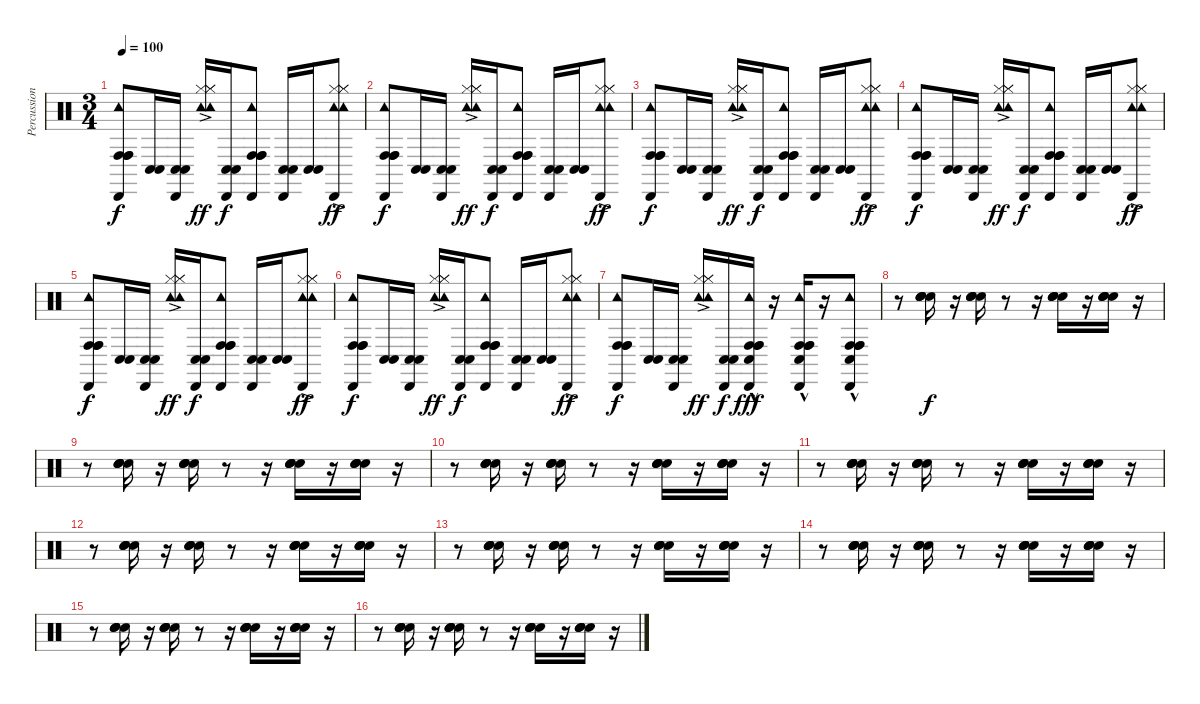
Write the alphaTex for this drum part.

\track ("Percussion" "Percussion") {instrument percussion}
\staff {score}
\articulation defaults
\ts (3 4)
\tempo 100
\clef neutral
\ks c
("Tambourine (hit)" "Conga high (hit)" "Conga high (hit)" "Conga high (hit)" "Cabasa (hit)").8{dy f} ("Conga low (hit)" "Conga low (hit)").16 ("Conga low (hit)" "Conga low (hit)" "Cabasa (hit)").16 ("Tambourine (hit)" "Tambourine (hit)" "Hi-Hat (closed)" "Hi-Hat (closed)" "Hi-Hat (closed)"{ac}).16{dy ff} ("Conga low (hit)" "Conga low (hit)" "Cabasa (hit)").16{dy f} ("Tambourine (hit)" "Conga high (hit)" "Conga high (hit)" "Conga high (hit)" "Cabasa (hit)").8 ("Conga low (hit)" "Conga low (hit)" "Cabasa (hit)").16 ("Conga low (hit)" "Conga low (hit)").16 ("Tambourine (hit)" "Tambourine (hit)" "Hi-Hat (closed)" "Hi-Hat (closed)" "Hi-Hat (closed)"{ac} "Cabasa (hit)").8{dy ff} |
("Tambourine (hit)" "Conga high (hit)" "Conga high (hit)" "Conga high (hit)" "Cabasa (hit)").8{dy f} ("Conga low (hit)" "Conga low (hit)").16 ("Conga low (hit)" "Conga low (hit)" "Cabasa (hit)").16 ("Tambourine (hit)" "Tambourine (hit)" "Hi-Hat (closed)" "Hi-Hat (closed)" "Hi-Hat (closed)"{ac}).16{dy ff} ("Conga low (hit)" "Conga low (hit)" "Cabasa (hit)").16{dy f} ("Tambourine (hit)" "Conga high (hit)" "Conga high (hit)" "Conga high (hit)" "Cabasa (hit)").8 ("Conga low (hit)" "Conga low (hit)" "Cabasa (hit)").16 ("Conga low (hit)" "Conga low (hit)").16 ("Tambourine (hit)" "Tambourine (hit)" "Hi-Hat (closed)" "Hi-Hat (closed)" "Hi-Hat (closed)"{ac} "Cabasa (hit)").8{dy ff} |
("Tambourine (hit)" "Conga high (hit)" "Conga high (hit)" "Conga high (hit)" "Cabasa (hit)").8{dy f} ("Conga low (hit)" "Conga low (hit)").16 ("Conga low (hit)" "Conga low (hit)" "Cabasa (hit)").16 ("Tambourine (hit)" "Tambourine (hit)" "Hi-Hat (closed)" "Hi-Hat (closed)" "Hi-Hat (closed)"{ac}).16{dy ff} ("Conga low (hit)" "Conga low (hit)" "Cabasa (hit)").16{dy f} ("Tambourine (hit)" "Conga high (hit)" "Conga high (hit)" "Conga high (hit)" "Cabasa (hit)").8 ("Conga low (hit)" "Conga low (hit)" "Cabasa (hit)").16 ("Conga low (hit)" "Conga low (hit)").16 ("Tambourine (hit)" "Tambourine (hit)" "Hi-Hat (closed)" "Hi-Hat (closed)" "Hi-Hat (closed)"{ac} "Cabasa (hit)").8{dy ff} |
("Tambourine (hit)" "Conga high (hit)" "Conga high (hit)" "Conga high (hit)" "Cabasa (hit)").8{dy f} ("Conga low (hit)" "Conga low (hit)").16 ("Conga low (hit)" "Conga low (hit)" "Cabasa (hit)").16 ("Tambourine (hit)" "Tambourine (hit)" "Hi-Hat (closed)" "Hi-Hat (closed)" "Hi-Hat (closed)"{ac}).16{dy ff} ("Conga low (hit)" "Conga low (hit)" "Cabasa (hit)").16{dy f} ("Tambourine (hit)" "Conga high (hit)" "Conga high (hit)" "Conga high (hit)" "Cabasa (hit)").8 ("Conga low (hit)" "Conga low (hit)" "Cabasa (hit)").16 ("Conga low (hit)" "Conga low (hit)").16 ("Tambourine (hit)" "Tambourine (hit)" "Hi-Hat (closed)" "Hi-Hat (closed)" "Hi-Hat (closed)"{ac} "Cabasa (hit)").8{dy ff} |
("Tambourine (hit)" "Conga high (hit)" "Conga high (hit)" "Conga high (hit)" "Cabasa (hit)").8{dy f} ("Conga low (hit)" "Conga low (hit)").16 ("Conga low (hit)" "Conga low (hit)" "Cabasa (hit)").16 ("Tambourine (hit)" "Tambourine (hit)" "Hi-Hat (closed)" "Hi-Hat (closed)" "Hi-Hat (closed)"{ac}).16{dy ff} ("Conga low (hit)" "Conga low (hit)" "Cabasa (hit)").16{dy f} ("Tambourine (hit)" "Conga high (hit)" "Conga high (hit)" "Conga high (hit)" "Cabasa (hit)").8 ("Conga low (hit)" "Conga low (hit)" "Cabasa (hit)").16 ("Conga low (hit)" "Conga low (hit)").16 ("Tambourine (hit)" "Tambourine (hit)" "Hi-Hat (closed)" "Hi-Hat (closed)" "Hi-Hat (closed)"{ac} "Cabasa (hit)").8{dy ff} |
("Tambourine (hit)" "Conga high (hit)" "Conga high (hit)" "Conga high (hit)" "Cabasa (hit)").8{dy f} ("Conga low (hit)" "Conga low (hit)").16 ("Conga low (hit)" "Conga low (hit)" "Cabasa (hit)").16 ("Tambourine (hit)" "Tambourine (hit)" "Hi-Hat (closed)" "Hi-Hat (closed)" "Hi-Hat (closed)"{ac}).16{dy ff} ("Conga low (hit)" "Conga low (hit)" "Cabasa (hit)").16{dy f} ("Tambourine (hit)" "Conga high (hit)" "Conga high (hit)" "Conga high (hit)" "Cabasa (hit)").8 ("Conga low (hit)" "Conga low (hit)" "Cabasa (hit)").16 ("Conga low (hit)" "Conga low (hit)").16 ("Tambourine (hit)" "Tambourine (hit)" "Hi-Hat (closed)" "Hi-Hat (closed)" "Hi-Hat (closed)"{ac} "Cabasa (hit)").8{dy ff} |
("Tambourine (hit)" "Conga high (hit)" "Conga high (hit)" "Conga high (hit)" "Cabasa (hit)").8{dy f} ("Conga low (hit)" "Conga low (hit)").16 ("Conga low (hit)" "Conga low (hit)" "Cabasa (hit)").16 ("Tambourine (hit)" "Tambourine (hit)" "Hi-Hat (closed)" "Hi-Hat (closed)" "Hi-Hat (closed)"{ac}).16{dy ff} ("Conga low (hit)" "Conga low (hit)" "Cabasa (hit)").16{dy f} ("Tambourine (hit)"{hac} "Conga high (hit)"{hac} "Conga high (hit)"{hac} "Conga high (hit)"{hac} "Cabasa (hit)"{hac} "Conga low (hit)"{hac}).16{dy fff} r.16 ("Tambourine (hit)"{hac} "Conga high (hit)"{hac} "Conga high (hit)"{hac} "Conga high (hit)"{hac} "Conga low (hit)"{hac} "Cabasa (hit)"{hac}).16 r.16 ("Tambourine (hit)"{hac} "Conga high (hit)"{hac} "Conga high (hit)"{hac} "Conga high (hit)"{hac} "Conga low (hit)"{hac} "Cabasa (hit)"{hac}).8 |
r.8 ("Hand Clap (hit)" "Hand Clap (hit)" "Hand Clap (hit)" "Hand Clap (hit)").16{dy f} r.16 ("Hand Clap (hit)" "Hand Clap (hit)" "Hand Clap (hit)" "Hand Clap (hit)").16 r.8 r.16 ("Hand Clap (hit)" "Hand Clap (hit)" "Hand Clap (hit)" "Hand Clap (hit)").16 r.16 ("Hand Clap (hit)" "Hand Clap (hit)" "Hand Clap (hit)" "Hand Clap (hit)").16 r.16 |
r.8 ("Hand Clap (hit)" "Hand Clap (hit)" "Hand Clap (hit)" "Hand Clap (hit)").16 r.16 ("Hand Clap (hit)" "Hand Clap (hit)" "Hand Clap (hit)" "Hand Clap (hit)").16 r.8 r.16 ("Hand Clap (hit)" "Hand Clap (hit)" "Hand Clap (hit)" "Hand Clap (hit)").16 r.16 ("Hand Clap (hit)" "Hand Clap (hit)" "Hand Clap (hit)" "Hand Clap (hit)").16 r.16 |
r.8 ("Hand Clap (hit)" "Hand Clap (hit)" "Hand Clap (hit)" "Hand Clap (hit)").16 r.16 ("Hand Clap (hit)" "Hand Clap (hit)" "Hand Clap (hit)" "Hand Clap (hit)").16 r.8 r.16 ("Hand Clap (hit)" "Hand Clap (hit)" "Hand Clap (hit)" "Hand Clap (hit)").16 r.16 ("Hand Clap (hit)" "Hand Clap (hit)" "Hand Clap (hit)" "Hand Clap (hit)").16 r.16 |
r.8 ("Hand Clap (hit)" "Hand Clap (hit)" "Hand Clap (hit)" "Hand Clap (hit)").16 r.16 ("Hand Clap (hit)" "Hand Clap (hit)" "Hand Clap (hit)" "Hand Clap (hit)").16 r.8 r.16 ("Hand Clap (hit)" "Hand Clap (hit)" "Hand Clap (hit)" "Hand Clap (hit)").16 r.16 ("Hand Clap (hit)" "Hand Clap (hit)" "Hand Clap (hit)" "Hand Clap (hit)").16 r.16 |
r.8 ("Hand Clap (hit)" "Hand Clap (hit)" "Hand Clap (hit)" "Hand Clap (hit)").16 r.16 ("Hand Clap (hit)" "Hand Clap (hit)" "Hand Clap (hit)" "Hand Clap (hit)").16 r.8 r.16 ("Hand Clap (hit)" "Hand Clap (hit)" "Hand Clap (hit)" "Hand Clap (hit)").16 r.16 ("Hand Clap (hit)" "Hand Clap (hit)" "Hand Clap (hit)" "Hand Clap (hit)").16 r.16 |
r.8 ("Hand Clap (hit)" "Hand Clap (hit)" "Hand Clap (hit)" "Hand Clap (hit)").16 r.16 ("Hand Clap (hit)" "Hand Clap (hit)" "Hand Clap (hit)" "Hand Clap (hit)").16 r.8 r.16 ("Hand Clap (hit)" "Hand Clap (hit)" "Hand Clap (hit)" "Hand Clap (hit)").16 r.16 ("Hand Clap (hit)" "Hand Clap (hit)" "Hand Clap (hit)" "Hand Clap (hit)").16 r.16 |
r.8 ("Hand Clap (hit)" "Hand Clap (hit)" "Hand Clap (hit)" "Hand Clap (hit)").16 r.16 ("Hand Clap (hit)" "Hand Clap (hit)" "Hand Clap (hit)" "Hand Clap (hit)").16 r.8 r.16 ("Hand Clap (hit)" "Hand Clap (hit)" "Hand Clap (hit)" "Hand Clap (hit)").16 r.16 ("Hand Clap (hit)" "Hand Clap (hit)" "Hand Clap (hit)" "Hand Clap (hit)").16 r.16 |
r.8 ("Hand Clap (hit)" "Hand Clap (hit)" "Hand Clap (hit)" "Hand Clap (hit)").16 r.16 ("Hand Clap (hit)" "Hand Clap (hit)" "Hand Clap (hit)" "Hand Clap (hit)").16 r.8 r.16 ("Hand Clap (hit)" "Hand Clap (hit)" "Hand Clap (hit)" "Hand Clap (hit)").16 r.16 ("Hand Clap (hit)" "Hand Clap (hit)" "Hand Clap (hit)" "Hand Clap (hit)").16 r.16 |
r.8 ("Hand Clap (hit)" "Hand Clap (hit)" "Hand Clap (hit)" "Hand Clap (hit)").16 r.16 ("Hand Clap (hit)" "Hand Clap (hit)" "Hand Clap (hit)" "Hand Clap (hit)").16 r.8 r.16 ("Hand Clap (hit)" "Hand Clap (hit)" "Hand Clap (hit)" "Hand Clap (hit)").16 r.16 ("Hand Clap (hit)" "Hand Clap (hit)" "Hand Clap (hit)" "Hand Clap (hit)").16 r.16
